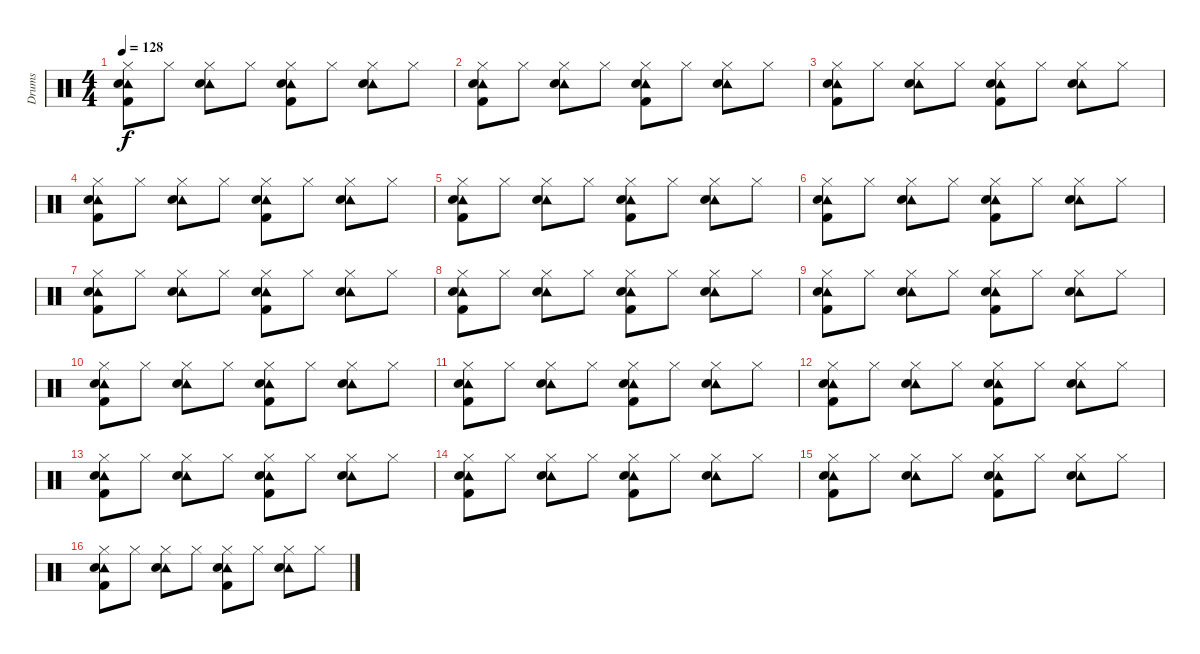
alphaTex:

\track ("Drums" "Drums") {instrument percussion}
\staff {score}
\articulation defaults
\ts (4 4)
\tempo 128
\clef neutral
\ks c
("Tambourine (hit)" "Hi-Hat (closed)" "Snare (hit) 2" "Kick (hit) 2").8{dy f} "Hi-Hat (closed)".8 ("Tambourine (hit)" "Hi-Hat (closed)" "Snare (hit) 2").8 "Hi-Hat (closed)".8 ("Tambourine (hit)" "Hi-Hat (closed)" "Snare (hit) 2" "Kick (hit) 2").8 "Hi-Hat (closed)".8 ("Tambourine (hit)" "Hi-Hat (closed)" "Snare (hit) 2").8 "Hi-Hat (closed)".8 |
("Tambourine (hit)" "Hi-Hat (closed)" "Snare (hit) 2" "Kick (hit) 2").8 "Hi-Hat (closed)".8 ("Tambourine (hit)" "Hi-Hat (closed)" "Snare (hit) 2").8 "Hi-Hat (closed)".8 ("Tambourine (hit)" "Hi-Hat (closed)" "Snare (hit) 2" "Kick (hit) 2").8 "Hi-Hat (closed)".8 ("Tambourine (hit)" "Hi-Hat (closed)" "Snare (hit) 2").8 "Hi-Hat (closed)".8 |
("Tambourine (hit)" "Hi-Hat (closed)" "Snare (hit) 2" "Kick (hit) 2").8 "Hi-Hat (closed)".8 ("Tambourine (hit)" "Hi-Hat (closed)" "Snare (hit) 2").8 "Hi-Hat (closed)".8 ("Tambourine (hit)" "Hi-Hat (closed)" "Snare (hit) 2" "Kick (hit) 2").8 "Hi-Hat (closed)".8 ("Tambourine (hit)" "Hi-Hat (closed)" "Snare (hit) 2").8 "Hi-Hat (closed)".8 |
("Tambourine (hit)" "Hi-Hat (closed)" "Snare (hit) 2" "Kick (hit) 2").8 "Hi-Hat (closed)".8 ("Tambourine (hit)" "Hi-Hat (closed)" "Snare (hit) 2").8 "Hi-Hat (closed)".8 ("Tambourine (hit)" "Hi-Hat (closed)" "Snare (hit) 2" "Kick (hit) 2").8 "Hi-Hat (closed)".8 ("Tambourine (hit)" "Hi-Hat (closed)" "Snare (hit) 2").8 "Hi-Hat (closed)".8 |
("Tambourine (hit)" "Hi-Hat (closed)" "Snare (hit) 2" "Kick (hit) 2").8 "Hi-Hat (closed)".8 ("Tambourine (hit)" "Hi-Hat (closed)" "Snare (hit) 2").8 "Hi-Hat (closed)".8 ("Tambourine (hit)" "Hi-Hat (closed)" "Snare (hit) 2" "Kick (hit) 2").8 "Hi-Hat (closed)".8 ("Tambourine (hit)" "Hi-Hat (closed)" "Snare (hit) 2").8 "Hi-Hat (closed)".8 |
("Tambourine (hit)" "Hi-Hat (closed)" "Snare (hit) 2" "Kick (hit) 2").8 "Hi-Hat (closed)".8 ("Tambourine (hit)" "Hi-Hat (closed)" "Snare (hit) 2").8 "Hi-Hat (closed)".8 ("Tambourine (hit)" "Hi-Hat (closed)" "Snare (hit) 2" "Kick (hit) 2").8 "Hi-Hat (closed)".8 ("Tambourine (hit)" "Hi-Hat (closed)" "Snare (hit) 2").8 "Hi-Hat (closed)".8 |
("Tambourine (hit)" "Hi-Hat (closed)" "Snare (hit) 2" "Kick (hit) 2").8 "Hi-Hat (closed)".8 ("Tambourine (hit)" "Hi-Hat (closed)" "Snare (hit) 2").8 "Hi-Hat (closed)".8 ("Tambourine (hit)" "Hi-Hat (closed)" "Snare (hit) 2" "Kick (hit) 2").8 "Hi-Hat (closed)".8 ("Tambourine (hit)" "Hi-Hat (closed)" "Snare (hit) 2").8 "Hi-Hat (closed)".8 |
("Tambourine (hit)" "Hi-Hat (closed)" "Snare (hit) 2" "Kick (hit) 2").8 "Hi-Hat (closed)".8 ("Tambourine (hit)" "Hi-Hat (closed)" "Snare (hit) 2").8 "Hi-Hat (closed)".8 ("Tambourine (hit)" "Hi-Hat (closed)" "Snare (hit) 2" "Kick (hit) 2").8 "Hi-Hat (closed)".8 ("Tambourine (hit)" "Hi-Hat (closed)" "Snare (hit) 2").8 "Hi-Hat (closed)".8 |
("Tambourine (hit)" "Hi-Hat (closed)" "Snare (hit) 2" "Kick (hit) 2").8 "Hi-Hat (closed)".8 ("Tambourine (hit)" "Hi-Hat (closed)" "Snare (hit) 2").8 "Hi-Hat (closed)".8 ("Tambourine (hit)" "Hi-Hat (closed)" "Snare (hit) 2" "Kick (hit) 2").8 "Hi-Hat (closed)".8 ("Tambourine (hit)" "Hi-Hat (closed)" "Snare (hit) 2").8 "Hi-Hat (closed)".8 |
("Tambourine (hit)" "Hi-Hat (closed)" "Snare (hit) 2" "Kick (hit) 2").8 "Hi-Hat (closed)".8 ("Tambourine (hit)" "Hi-Hat (closed)" "Snare (hit) 2").8 "Hi-Hat (closed)".8 ("Tambourine (hit)" "Hi-Hat (closed)" "Snare (hit) 2" "Kick (hit) 2").8 "Hi-Hat (closed)".8 ("Tambourine (hit)" "Hi-Hat (closed)" "Snare (hit) 2").8 "Hi-Hat (closed)".8 |
("Tambourine (hit)" "Hi-Hat (closed)" "Snare (hit) 2" "Kick (hit) 2").8 "Hi-Hat (closed)".8 ("Tambourine (hit)" "Hi-Hat (closed)" "Snare (hit) 2").8 "Hi-Hat (closed)".8 ("Tambourine (hit)" "Hi-Hat (closed)" "Snare (hit) 2" "Kick (hit) 2").8 "Hi-Hat (closed)".8 ("Tambourine (hit)" "Hi-Hat (closed)" "Snare (hit) 2").8 "Hi-Hat (closed)".8 |
("Tambourine (hit)" "Hi-Hat (closed)" "Snare (hit) 2" "Kick (hit) 2").8 "Hi-Hat (closed)".8 ("Tambourine (hit)" "Hi-Hat (closed)" "Snare (hit) 2").8 "Hi-Hat (closed)".8 ("Tambourine (hit)" "Hi-Hat (closed)" "Snare (hit) 2" "Kick (hit) 2").8 "Hi-Hat (closed)".8 ("Tambourine (hit)" "Hi-Hat (closed)" "Snare (hit) 2").8 "Hi-Hat (closed)".8 |
("Tambourine (hit)" "Hi-Hat (closed)" "Snare (hit) 2" "Kick (hit) 2").8 "Hi-Hat (closed)".8 ("Tambourine (hit)" "Hi-Hat (closed)" "Snare (hit) 2").8 "Hi-Hat (closed)".8 ("Tambourine (hit)" "Hi-Hat (closed)" "Snare (hit) 2" "Kick (hit) 2").8 "Hi-Hat (closed)".8 ("Tambourine (hit)" "Hi-Hat (closed)" "Snare (hit) 2").8 "Hi-Hat (closed)".8 |
("Tambourine (hit)" "Hi-Hat (closed)" "Snare (hit) 2" "Kick (hit) 2").8 "Hi-Hat (closed)".8 ("Tambourine (hit)" "Hi-Hat (closed)" "Snare (hit) 2").8 "Hi-Hat (closed)".8 ("Tambourine (hit)" "Hi-Hat (closed)" "Snare (hit) 2" "Kick (hit) 2").8 "Hi-Hat (closed)".8 ("Tambourine (hit)" "Hi-Hat (closed)" "Snare (hit) 2").8 "Hi-Hat (closed)".8 |
("Tambourine (hit)" "Hi-Hat (closed)" "Snare (hit) 2" "Kick (hit) 2").8 "Hi-Hat (closed)".8 ("Tambourine (hit)" "Hi-Hat (closed)" "Snare (hit) 2").8 "Hi-Hat (closed)".8 ("Tambourine (hit)" "Hi-Hat (closed)" "Snare (hit) 2" "Kick (hit) 2").8 "Hi-Hat (closed)".8 ("Tambourine (hit)" "Hi-Hat (closed)" "Snare (hit) 2").8 "Hi-Hat (closed)".8 |
("Tambourine (hit)" "Hi-Hat (closed)" "Snare (hit) 2" "Kick (hit) 2").8 "Hi-Hat (closed)".8 ("Tambourine (hit)" "Hi-Hat (closed)" "Snare (hit) 2").8 "Hi-Hat (closed)".8 ("Tambourine (hit)" "Hi-Hat (closed)" "Snare (hit) 2" "Kick (hit) 2").8 "Hi-Hat (closed)".8 ("Tambourine (hit)" "Hi-Hat (closed)" "Snare (hit) 2").8 "Hi-Hat (closed)".8
